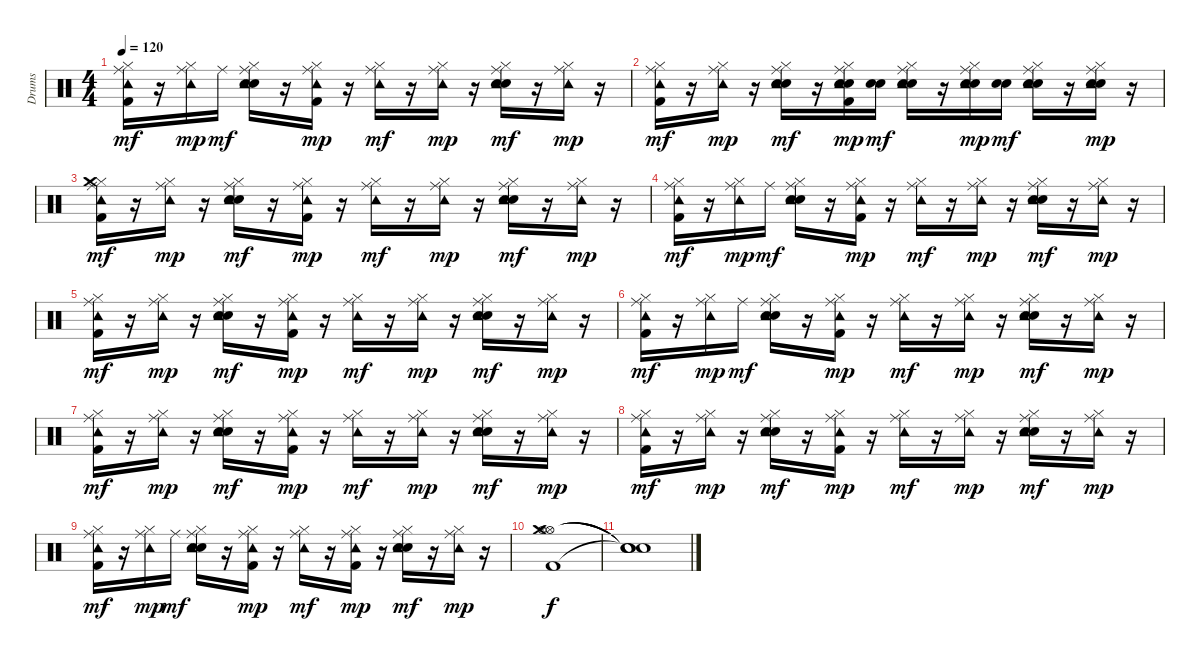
\track ("Drums" "Drums") {instrument percussion}
\staff {score}
\articulation defaults
\ts (4 4)
\tempo 120
\clef neutral
\ks c
("Hi-Hat (closed)" "Ride (middle)" "Tambourine (hit)" "Kick (hit) 2").16{dy mf} r.16 ("Hi-Hat (closed)" "Ride (middle)" "Tambourine (hit)").16{dy mp} "Ride (middle)".16{dy mf} ("Hi-Hat (closed)" "Ride (middle)" "Snare (hit) 2" "Electric Snare (hit)" "Tambourine (hit)").16 r.16 ("Hi-Hat (closed)" "Ride (middle)" "Tambourine (hit)" "Kick (hit) 2").16{dy mp} r.16 ("Hi-Hat (closed)" "Ride (middle)" "Tambourine (hit)").16{dy mf} r.16 ("Hi-Hat (closed)" "Ride (middle)" "Tambourine (hit)").16{dy mp} r.16 ("Hi-Hat (closed)" "Ride (middle)" "Snare (hit) 2" "Electric Snare (hit)" "Tambourine (hit)").16{dy mf} r.16 ("Hi-Hat (closed)" "Ride (middle)" "Tambourine (hit)").16{dy mp} r.16 |
("Hi-Hat (closed)" "Ride (middle)" "Tambourine (hit)" "Kick (hit) 2").16{dy mf} r.16 ("Hi-Hat (closed)" "Ride (middle)" "Tambourine (hit)").16{dy mp} r.16 ("Hi-Hat (closed)" "Ride (middle)" "Snare (hit) 2" "Electric Snare (hit)" "Tambourine (hit)").16{dy mf} r.16 ("Hi-Hat (closed)" "Ride (middle)" "Snare (hit) 2" "Electric Snare (hit)" "Tambourine (hit)" "Kick (hit) 2").16{dy mp} ("Snare (hit) 2" "Electric Snare (hit)").16{dy mf} ("Hi-Hat (closed)" "Ride (middle)" "Snare (hit) 2" "Electric Snare (hit)" "Tambourine (hit)").16 r.16 ("Hi-Hat (closed)" "Ride (middle)" "Snare (hit) 2" "Electric Snare (hit)" "Tambourine (hit)").16{dy mp} ("Snare (hit) 2" "Electric Snare (hit)").16{dy mf} ("Hi-Hat (closed)" "Ride (middle)" "Snare (hit) 2" "Electric Snare (hit)" "Tambourine (hit)").16 r.16 ("Hi-Hat (closed)" "Ride (middle)" "Snare (hit) 2" "Electric Snare (hit)" "Tambourine (hit)").16{dy mp} r.16 |
("Hi-Hat (closed)" "Ride (middle)" "Crash medium (hit)" "Tambourine (hit)" "Kick (hit) 2").16{dy mf} r.16 ("Hi-Hat (closed)" "Ride (middle)" "Tambourine (hit)").16{dy mp} r.16 ("Hi-Hat (closed)" "Ride (middle)" "Snare (hit) 2" "Electric Snare (hit)" "Tambourine (hit)").16{dy mf} r.16 ("Hi-Hat (closed)" "Ride (middle)" "Tambourine (hit)" "Kick (hit) 2").16{dy mp} r.16 ("Hi-Hat (closed)" "Ride (middle)" "Tambourine (hit)").16{dy mf} r.16 ("Hi-Hat (closed)" "Ride (middle)" "Tambourine (hit)").16{dy mp} r.16 ("Hi-Hat (closed)" "Ride (middle)" "Snare (hit) 2" "Electric Snare (hit)" "Tambourine (hit)").16{dy mf} r.16 ("Hi-Hat (closed)" "Ride (middle)" "Tambourine (hit)").16{dy mp} r.16 |
("Hi-Hat (closed)" "Ride (middle)" "Tambourine (hit)" "Kick (hit) 2").16{dy mf} r.16 ("Hi-Hat (closed)" "Ride (middle)" "Tambourine (hit)").16{dy mp} "Ride (middle)".16{dy mf} ("Hi-Hat (closed)" "Ride (middle)" "Snare (hit) 2" "Electric Snare (hit)" "Tambourine (hit)").16 r.16 ("Hi-Hat (closed)" "Ride (middle)" "Tambourine (hit)" "Kick (hit) 2").16{dy mp} r.16 ("Hi-Hat (closed)" "Ride (middle)" "Tambourine (hit)").16{dy mf} r.16 ("Hi-Hat (closed)" "Ride (middle)" "Tambourine (hit)").16{dy mp} r.16 ("Hi-Hat (closed)" "Ride (middle)" "Snare (hit) 2" "Electric Snare (hit)" "Tambourine (hit)").16{dy mf} r.16 ("Hi-Hat (closed)" "Ride (middle)" "Tambourine (hit)").16{dy mp} r.16 |
("Hi-Hat (closed)" "Ride (middle)" "Tambourine (hit)" "Kick (hit) 2").16{dy mf} r.16 ("Hi-Hat (closed)" "Ride (middle)" "Tambourine (hit)").16{dy mp} r.16 ("Hi-Hat (closed)" "Ride (middle)" "Snare (hit) 2" "Electric Snare (hit)" "Tambourine (hit)").16{dy mf} r.16 ("Hi-Hat (closed)" "Ride (middle)" "Tambourine (hit)" "Kick (hit) 2").16{dy mp} r.16 ("Hi-Hat (closed)" "Ride (middle)" "Tambourine (hit)").16{dy mf} r.16 ("Hi-Hat (closed)" "Ride (middle)" "Tambourine (hit)").16{dy mp} r.16 ("Hi-Hat (closed)" "Ride (middle)" "Snare (hit) 2" "Electric Snare (hit)" "Tambourine (hit)").16{dy mf} r.16 ("Hi-Hat (closed)" "Ride (middle)" "Tambourine (hit)").16{dy mp} r.16 |
("Hi-Hat (closed)" "Ride (middle)" "Tambourine (hit)" "Kick (hit) 2").16{dy mf} r.16 ("Hi-Hat (closed)" "Ride (middle)" "Tambourine (hit)").16{dy mp} "Ride (middle)".16{dy mf} ("Hi-Hat (closed)" "Ride (middle)" "Snare (hit) 2" "Electric Snare (hit)" "Tambourine (hit)").16 r.16 ("Hi-Hat (closed)" "Ride (middle)" "Tambourine (hit)" "Kick (hit) 2").16{dy mp} r.16 ("Hi-Hat (closed)" "Ride (middle)" "Tambourine (hit)").16{dy mf} r.16 ("Hi-Hat (closed)" "Ride (middle)" "Tambourine (hit)").16{dy mp} r.16 ("Hi-Hat (closed)" "Ride (middle)" "Snare (hit) 2" "Electric Snare (hit)" "Tambourine (hit)").16{dy mf} r.16 ("Hi-Hat (closed)" "Ride (middle)" "Tambourine (hit)").16{dy mp} r.16 |
("Hi-Hat (closed)" "Ride (middle)" "Tambourine (hit)" "Kick (hit) 2").16{dy mf} r.16 ("Hi-Hat (closed)" "Ride (middle)" "Tambourine (hit)").16{dy mp} r.16 ("Hi-Hat (closed)" "Ride (middle)" "Snare (hit) 2" "Electric Snare (hit)" "Tambourine (hit)").16{dy mf} r.16 ("Hi-Hat (closed)" "Ride (middle)" "Tambourine (hit)" "Kick (hit) 2").16{dy mp} r.16 ("Hi-Hat (closed)" "Ride (middle)" "Tambourine (hit)").16{dy mf} r.16 ("Hi-Hat (closed)" "Ride (middle)" "Tambourine (hit)").16{dy mp} r.16 ("Hi-Hat (closed)" "Ride (middle)" "Snare (hit) 2" "Electric Snare (hit)" "Tambourine (hit)").16{dy mf} r.16 ("Hi-Hat (closed)" "Ride (middle)" "Tambourine (hit)").16{dy mp} r.16 |
("Hi-Hat (closed)" "Ride (middle)" "Tambourine (hit)" "Kick (hit) 2").16{dy mf} r.16 ("Hi-Hat (closed)" "Ride (middle)" "Tambourine (hit)").16{dy mp} r.16 ("Hi-Hat (closed)" "Ride (middle)" "Snare (hit) 2" "Electric Snare (hit)" "Tambourine (hit)").16{dy mf} r.16 ("Hi-Hat (closed)" "Ride (middle)" "Tambourine (hit)" "Kick (hit) 2").16{dy mp} r.16 ("Hi-Hat (closed)" "Ride (middle)" "Tambourine (hit)").16{dy mf} r.16 ("Hi-Hat (closed)" "Ride (middle)" "Tambourine (hit)").16{dy mp} r.16 ("Hi-Hat (closed)" "Ride (middle)" "Snare (hit) 2" "Electric Snare (hit)" "Tambourine (hit)").16{dy mf} r.16 ("Hi-Hat (closed)" "Ride (middle)" "Tambourine (hit)").16{dy mp} r.16 |
("Hi-Hat (closed)" "Ride (middle)" "Tambourine (hit)" "Kick (hit) 2").16{dy mf} r.16 ("Hi-Hat (closed)" "Ride (middle)" "Tambourine (hit)").16{dy mp} "Ride (middle)".16{dy mf} ("Hi-Hat (closed)" "Ride (middle)" "Snare (hit) 2" "Electric Snare (hit)" "Tambourine (hit)").16 r.16 ("Hi-Hat (closed)" "Ride (middle)" "Tambourine (hit)" "Kick (hit) 2").16{dy mp} r.16 ("Hi-Hat (closed)" "Ride (middle)" "Tambourine (hit)").16{dy mf} r.16 ("Hi-Hat (closed)" "Ride (middle)" "Tambourine (hit)" "Kick (hit) 2").16{dy mp} r.16 ("Hi-Hat (closed)" "Ride (middle)" "Snare (hit) 2" "Electric Snare (hit)" "Tambourine (hit)").16{dy mf} r.16 ("Hi-Hat (closed)" "Ride (middle)" "Tambourine (hit)").16{dy mp} r.16 |
("Hi-Hat (open)" "Crash medium (hit)" "Hi-Hat (open)" "Kick (hit) 2").1{dy f} |
("Snare (hit)"{t} "Snare (hit)"{t} "Snare (hit)"{t} "Snare (hit)"{t}).1
